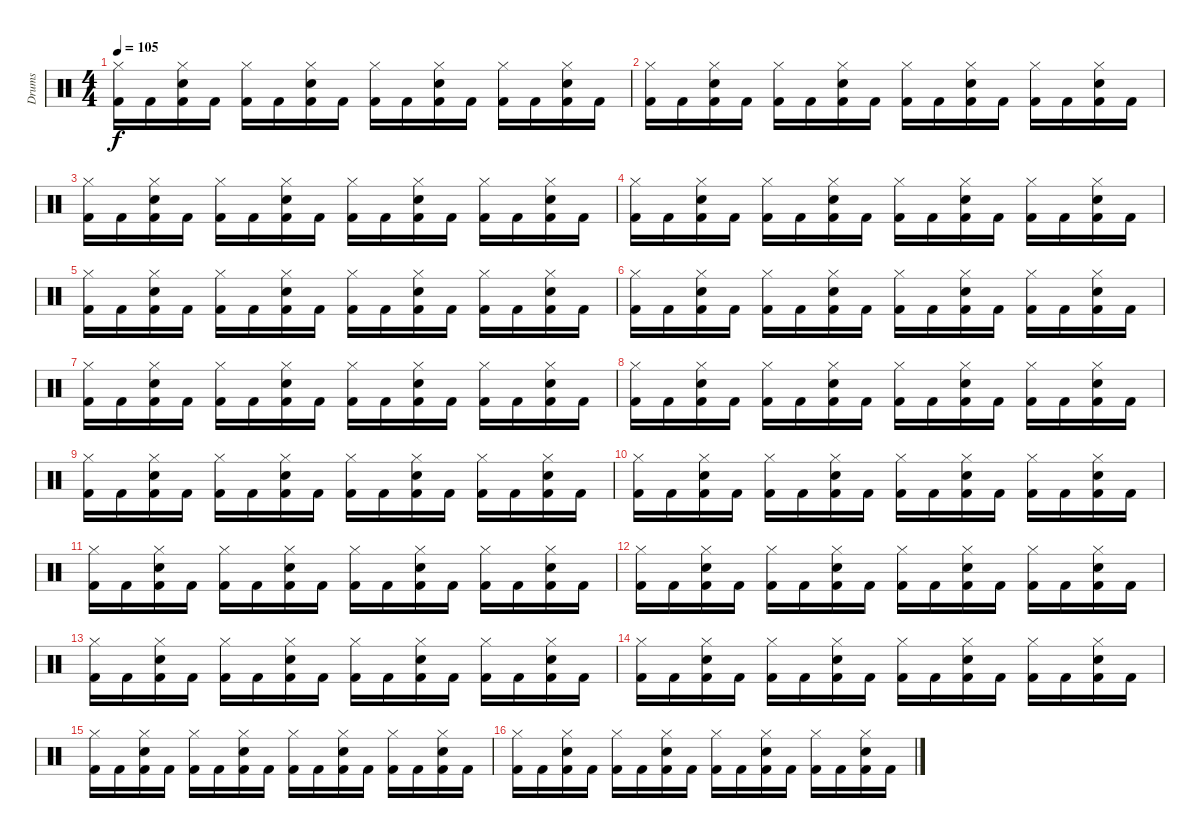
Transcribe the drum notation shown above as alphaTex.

\track ("Drums" "Drums") {instrument percussion}
\staff {score}
\articulation defaults
\ts (4 4)
\tempo 105
\clef neutral
\ks c
("Kick (hit) 2" "Hi-Hat (closed)").16{dy f} "Kick (hit) 2".16 ("Kick (hit) 2" "Snare (hit) 2" "Hi-Hat (closed)").16 "Kick (hit) 2".16 ("Kick (hit) 2" "Hi-Hat (closed)").16 "Kick (hit) 2".16 ("Kick (hit) 2" "Snare (hit) 2" "Hi-Hat (closed)").16 "Kick (hit) 2".16 ("Kick (hit) 2" "Hi-Hat (closed)").16 "Kick (hit) 2".16 ("Kick (hit) 2" "Snare (hit) 2" "Hi-Hat (closed)").16 "Kick (hit) 2".16 ("Kick (hit) 2" "Hi-Hat (closed)").16 "Kick (hit) 2".16 ("Kick (hit) 2" "Snare (hit) 2" "Hi-Hat (closed)").16 "Kick (hit) 2".16 |
("Kick (hit) 2" "Hi-Hat (closed)").16 "Kick (hit) 2".16 ("Kick (hit) 2" "Snare (hit) 2" "Hi-Hat (closed)").16 "Kick (hit) 2".16 ("Kick (hit) 2" "Hi-Hat (closed)").16 "Kick (hit) 2".16 ("Kick (hit) 2" "Snare (hit) 2" "Hi-Hat (closed)").16 "Kick (hit) 2".16 ("Kick (hit) 2" "Hi-Hat (closed)").16 "Kick (hit) 2".16 ("Kick (hit) 2" "Snare (hit) 2" "Hi-Hat (closed)").16 "Kick (hit) 2".16 ("Kick (hit) 2" "Hi-Hat (closed)").16 "Kick (hit) 2".16 ("Kick (hit) 2" "Snare (hit) 2" "Hi-Hat (closed)").16 "Kick (hit) 2".16 |
("Kick (hit) 2" "Hi-Hat (closed)").16 "Kick (hit) 2".16 ("Kick (hit) 2" "Snare (hit) 2" "Hi-Hat (closed)").16 "Kick (hit) 2".16 ("Kick (hit) 2" "Hi-Hat (closed)").16 "Kick (hit) 2".16 ("Kick (hit) 2" "Snare (hit) 2" "Hi-Hat (closed)").16 "Kick (hit) 2".16 ("Kick (hit) 2" "Hi-Hat (closed)").16 "Kick (hit) 2".16 ("Kick (hit) 2" "Snare (hit) 2" "Hi-Hat (closed)").16 "Kick (hit) 2".16 ("Kick (hit) 2" "Hi-Hat (closed)").16 "Kick (hit) 2".16 ("Kick (hit) 2" "Snare (hit) 2" "Hi-Hat (closed)").16 "Kick (hit) 2".16 |
("Kick (hit) 2" "Hi-Hat (closed)").16 "Kick (hit) 2".16 ("Kick (hit) 2" "Snare (hit) 2" "Hi-Hat (closed)").16 "Kick (hit) 2".16 ("Kick (hit) 2" "Hi-Hat (closed)").16 "Kick (hit) 2".16 ("Kick (hit) 2" "Snare (hit) 2" "Hi-Hat (closed)").16 "Kick (hit) 2".16 ("Kick (hit) 2" "Hi-Hat (closed)").16 "Kick (hit) 2".16 ("Kick (hit) 2" "Snare (hit) 2" "Hi-Hat (closed)").16 "Kick (hit) 2".16 ("Kick (hit) 2" "Hi-Hat (closed)").16 "Kick (hit) 2".16 ("Kick (hit) 2" "Snare (hit) 2" "Hi-Hat (closed)").16 "Kick (hit) 2".16 |
("Kick (hit) 2" "Hi-Hat (closed)").16 "Kick (hit) 2".16 ("Kick (hit) 2" "Snare (hit) 2" "Hi-Hat (closed)").16 "Kick (hit) 2".16 ("Kick (hit) 2" "Hi-Hat (closed)").16 "Kick (hit) 2".16 ("Kick (hit) 2" "Snare (hit) 2" "Hi-Hat (closed)").16 "Kick (hit) 2".16 ("Kick (hit) 2" "Hi-Hat (closed)").16 "Kick (hit) 2".16 ("Kick (hit) 2" "Snare (hit) 2" "Hi-Hat (closed)").16 "Kick (hit) 2".16 ("Kick (hit) 2" "Hi-Hat (closed)").16 "Kick (hit) 2".16 ("Kick (hit) 2" "Snare (hit) 2" "Hi-Hat (closed)").16 "Kick (hit) 2".16 |
("Kick (hit) 2" "Hi-Hat (closed)").16 "Kick (hit) 2".16 ("Kick (hit) 2" "Snare (hit) 2" "Hi-Hat (closed)").16 "Kick (hit) 2".16 ("Kick (hit) 2" "Hi-Hat (closed)").16 "Kick (hit) 2".16 ("Kick (hit) 2" "Snare (hit) 2" "Hi-Hat (closed)").16 "Kick (hit) 2".16 ("Kick (hit) 2" "Hi-Hat (closed)").16 "Kick (hit) 2".16 ("Kick (hit) 2" "Snare (hit) 2" "Hi-Hat (closed)").16 "Kick (hit) 2".16 ("Kick (hit) 2" "Hi-Hat (closed)").16 "Kick (hit) 2".16 ("Kick (hit) 2" "Snare (hit) 2" "Hi-Hat (closed)").16 "Kick (hit) 2".16 |
("Kick (hit) 2" "Hi-Hat (closed)").16 "Kick (hit) 2".16 ("Kick (hit) 2" "Snare (hit) 2" "Hi-Hat (closed)").16 "Kick (hit) 2".16 ("Kick (hit) 2" "Hi-Hat (closed)").16 "Kick (hit) 2".16 ("Kick (hit) 2" "Snare (hit) 2" "Hi-Hat (closed)").16 "Kick (hit) 2".16 ("Kick (hit) 2" "Hi-Hat (closed)").16 "Kick (hit) 2".16 ("Kick (hit) 2" "Snare (hit) 2" "Hi-Hat (closed)").16 "Kick (hit) 2".16 ("Kick (hit) 2" "Hi-Hat (closed)").16 "Kick (hit) 2".16 ("Kick (hit) 2" "Snare (hit) 2" "Hi-Hat (closed)").16 "Kick (hit) 2".16 |
("Kick (hit) 2" "Hi-Hat (closed)").16 "Kick (hit) 2".16 ("Kick (hit) 2" "Snare (hit) 2" "Hi-Hat (closed)").16 "Kick (hit) 2".16 ("Kick (hit) 2" "Hi-Hat (closed)").16 "Kick (hit) 2".16 ("Kick (hit) 2" "Snare (hit) 2" "Hi-Hat (closed)").16 "Kick (hit) 2".16 ("Kick (hit) 2" "Hi-Hat (closed)").16 "Kick (hit) 2".16 ("Kick (hit) 2" "Snare (hit) 2" "Hi-Hat (closed)").16 "Kick (hit) 2".16 ("Kick (hit) 2" "Hi-Hat (closed)").16 "Kick (hit) 2".16 ("Kick (hit) 2" "Snare (hit) 2" "Hi-Hat (closed)").16 "Kick (hit) 2".16 |
("Kick (hit) 2" "Hi-Hat (closed)").16 "Kick (hit) 2".16 ("Kick (hit) 2" "Snare (hit) 2" "Hi-Hat (closed)").16 "Kick (hit) 2".16 ("Kick (hit) 2" "Hi-Hat (closed)").16 "Kick (hit) 2".16 ("Kick (hit) 2" "Snare (hit) 2" "Hi-Hat (closed)").16 "Kick (hit) 2".16 ("Kick (hit) 2" "Hi-Hat (closed)").16 "Kick (hit) 2".16 ("Kick (hit) 2" "Snare (hit) 2" "Hi-Hat (closed)").16 "Kick (hit) 2".16 ("Kick (hit) 2" "Hi-Hat (closed)").16 "Kick (hit) 2".16 ("Kick (hit) 2" "Snare (hit) 2" "Hi-Hat (closed)").16 "Kick (hit) 2".16 |
("Kick (hit) 2" "Hi-Hat (closed)").16 "Kick (hit) 2".16 ("Kick (hit) 2" "Snare (hit) 2" "Hi-Hat (closed)").16 "Kick (hit) 2".16 ("Kick (hit) 2" "Hi-Hat (closed)").16 "Kick (hit) 2".16 ("Kick (hit) 2" "Snare (hit) 2" "Hi-Hat (closed)").16 "Kick (hit) 2".16 ("Kick (hit) 2" "Hi-Hat (closed)").16 "Kick (hit) 2".16 ("Kick (hit) 2" "Snare (hit) 2" "Hi-Hat (closed)").16 "Kick (hit) 2".16 ("Kick (hit) 2" "Hi-Hat (closed)").16 "Kick (hit) 2".16 ("Kick (hit) 2" "Snare (hit) 2" "Hi-Hat (closed)").16 "Kick (hit) 2".16 |
("Kick (hit) 2" "Hi-Hat (closed)").16 "Kick (hit) 2".16 ("Kick (hit) 2" "Snare (hit) 2" "Hi-Hat (closed)").16 "Kick (hit) 2".16 ("Kick (hit) 2" "Hi-Hat (closed)").16 "Kick (hit) 2".16 ("Kick (hit) 2" "Snare (hit) 2" "Hi-Hat (closed)").16 "Kick (hit) 2".16 ("Kick (hit) 2" "Hi-Hat (closed)").16 "Kick (hit) 2".16 ("Kick (hit) 2" "Snare (hit) 2" "Hi-Hat (closed)").16 "Kick (hit) 2".16 ("Kick (hit) 2" "Hi-Hat (closed)").16 "Kick (hit) 2".16 ("Kick (hit) 2" "Snare (hit) 2" "Hi-Hat (closed)").16 "Kick (hit) 2".16 |
("Kick (hit) 2" "Hi-Hat (closed)").16 "Kick (hit) 2".16 ("Kick (hit) 2" "Snare (hit) 2" "Hi-Hat (closed)").16 "Kick (hit) 2".16 ("Kick (hit) 2" "Hi-Hat (closed)").16 "Kick (hit) 2".16 ("Kick (hit) 2" "Snare (hit) 2" "Hi-Hat (closed)").16 "Kick (hit) 2".16 ("Kick (hit) 2" "Hi-Hat (closed)").16 "Kick (hit) 2".16 ("Kick (hit) 2" "Snare (hit) 2" "Hi-Hat (closed)").16 "Kick (hit) 2".16 ("Kick (hit) 2" "Hi-Hat (closed)").16 "Kick (hit) 2".16 ("Kick (hit) 2" "Snare (hit) 2" "Hi-Hat (closed)").16 "Kick (hit) 2".16 |
("Kick (hit) 2" "Hi-Hat (closed)").16{volume 8} "Kick (hit) 2".16 ("Kick (hit) 2" "Snare (hit) 2" "Hi-Hat (closed)").16 "Kick (hit) 2".16 ("Kick (hit) 2" "Hi-Hat (closed)").16 "Kick (hit) 2".16 ("Kick (hit) 2" "Snare (hit) 2" "Hi-Hat (closed)").16 "Kick (hit) 2".16 ("Kick (hit) 2" "Hi-Hat (closed)").16 "Kick (hit) 2".16 ("Kick (hit) 2" "Snare (hit) 2" "Hi-Hat (closed)").16 "Kick (hit) 2".16 ("Kick (hit) 2" "Hi-Hat (closed)").16 "Kick (hit) 2".16 ("Kick (hit) 2" "Snare (hit) 2" "Hi-Hat (closed)").16 "Kick (hit) 2".16 |
("Kick (hit) 2" "Hi-Hat (closed)").16 "Kick (hit) 2".16 ("Kick (hit) 2" "Snare (hit) 2" "Hi-Hat (closed)").16 "Kick (hit) 2".16 ("Kick (hit) 2" "Hi-Hat (closed)").16 "Kick (hit) 2".16 ("Kick (hit) 2" "Snare (hit) 2" "Hi-Hat (closed)").16 "Kick (hit) 2".16 ("Kick (hit) 2" "Hi-Hat (closed)").16 "Kick (hit) 2".16 ("Kick (hit) 2" "Snare (hit) 2" "Hi-Hat (closed)").16 "Kick (hit) 2".16 ("Kick (hit) 2" "Hi-Hat (closed)").16 "Kick (hit) 2".16 ("Kick (hit) 2" "Snare (hit) 2" "Hi-Hat (closed)").16 "Kick (hit) 2".16 |
("Kick (hit) 2" "Hi-Hat (closed)").16 "Kick (hit) 2".16 ("Kick (hit) 2" "Snare (hit) 2" "Hi-Hat (closed)").16 "Kick (hit) 2".16 ("Kick (hit) 2" "Hi-Hat (closed)").16 "Kick (hit) 2".16 ("Kick (hit) 2" "Snare (hit) 2" "Hi-Hat (closed)").16 "Kick (hit) 2".16 ("Kick (hit) 2" "Hi-Hat (closed)").16 "Kick (hit) 2".16 ("Kick (hit) 2" "Snare (hit) 2" "Hi-Hat (closed)").16 "Kick (hit) 2".16 ("Kick (hit) 2" "Hi-Hat (closed)").16 "Kick (hit) 2".16 ("Kick (hit) 2" "Snare (hit) 2" "Hi-Hat (closed)").16 "Kick (hit) 2".16 |
("Kick (hit) 2" "Hi-Hat (closed)").16 "Kick (hit) 2".16 ("Kick (hit) 2" "Snare (hit) 2" "Hi-Hat (closed)").16 "Kick (hit) 2".16 ("Kick (hit) 2" "Hi-Hat (closed)").16 "Kick (hit) 2".16 ("Kick (hit) 2" "Snare (hit) 2" "Hi-Hat (closed)").16 "Kick (hit) 2".16 ("Kick (hit) 2" "Hi-Hat (closed)").16 "Kick (hit) 2".16 ("Kick (hit) 2" "Snare (hit) 2" "Hi-Hat (closed)").16 "Kick (hit) 2".16 ("Kick (hit) 2" "Hi-Hat (closed)").16 "Kick (hit) 2".16 ("Kick (hit) 2" "Snare (hit) 2" "Hi-Hat (closed)").16 "Kick (hit) 2".16
